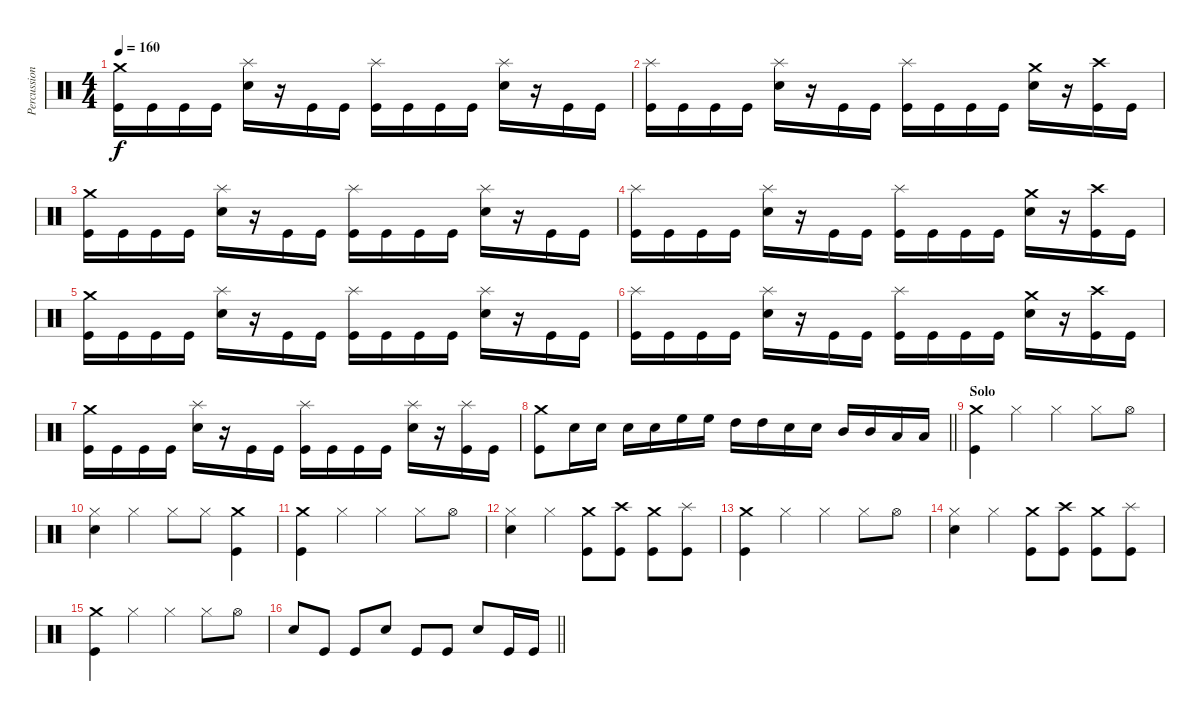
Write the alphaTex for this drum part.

\track ("Percussion" "Percussion") {instrument percussion}
\staff {score}
\articulation defaults
\ts (4 4)
\tempo 160
\clef neutral
\ks c
("Crash medium (hit)" "Kick (hit)").16{dy f} "Kick (hit)".16 "Kick (hit)".16 "Kick (hit)".16 ("Splash (hit)" "Snare (hit) 2").16 r.16 "Kick (hit)".16 "Kick (hit)".16 ("Splash (hit)" "Kick (hit)").16 "Kick (hit)".16 "Kick (hit)".16 "Kick (hit)".16 ("Splash (hit)" "Snare (hit) 2").16 r.16 "Kick (hit)".16 "Kick (hit)".16 |
("Splash (hit)" "Kick (hit)").16 "Kick (hit)".16 "Kick (hit)".16 "Kick (hit)".16 ("Splash (hit)" "Snare (hit) 2").16 r.16 "Kick (hit)".16 "Kick (hit)".16 ("Splash (hit)" "Kick (hit)").16 "Kick (hit)".16 "Kick (hit)".16 "Kick (hit)".16 ("Crash medium (hit)" "Snare (hit) 2").16 r.16 ("Crash high (hit)" "Kick (hit)").16 "Kick (hit)".16 |
("Crash medium (hit)" "Kick (hit)").16 "Kick (hit)".16 "Kick (hit)".16 "Kick (hit)".16 ("Splash (hit)" "Snare (hit) 2").16 r.16 "Kick (hit)".16 "Kick (hit)".16 ("Splash (hit)" "Kick (hit)").16 "Kick (hit)".16 "Kick (hit)".16 "Kick (hit)".16 ("Splash (hit)" "Snare (hit) 2").16 r.16 "Kick (hit)".16 "Kick (hit)".16 |
("Splash (hit)" "Kick (hit)").16 "Kick (hit)".16 "Kick (hit)".16 "Kick (hit)".16 ("Splash (hit)" "Snare (hit) 2").16 r.16 "Kick (hit)".16 "Kick (hit)".16 ("Splash (hit)" "Kick (hit)").16 "Kick (hit)".16 "Kick (hit)".16 "Kick (hit)".16 ("Crash medium (hit)" "Snare (hit) 2").16 r.16 ("Crash high (hit)" "Kick (hit)").16 "Kick (hit)".16 |
("Crash medium (hit)" "Kick (hit)").16 "Kick (hit)".16 "Kick (hit)".16 "Kick (hit)".16 ("Splash (hit)" "Snare (hit) 2").16 r.16 "Kick (hit)".16 "Kick (hit)".16 ("Splash (hit)" "Kick (hit)").16 "Kick (hit)".16 "Kick (hit)".16 "Kick (hit)".16 ("Splash (hit)" "Snare (hit) 2").16 r.16 "Kick (hit)".16 "Kick (hit)".16 |
("Splash (hit)" "Kick (hit)").16 "Kick (hit)".16 "Kick (hit)".16 "Kick (hit)".16 ("Splash (hit)" "Snare (hit) 2").16 r.16 "Kick (hit)".16 "Kick (hit)".16 ("Splash (hit)" "Kick (hit)").16 "Kick (hit)".16 "Kick (hit)".16 "Kick (hit)".16 ("Crash medium (hit)" "Snare (hit) 2").16 r.16 ("Crash high (hit)" "Kick (hit)").16 "Kick (hit)".16 |
("Crash medium (hit)" "Kick (hit)").16 "Kick (hit)".16 "Kick (hit)".16 "Kick (hit)".16 ("Splash (hit)" "Snare (hit) 2").16 r.16 "Kick (hit)".16 "Kick (hit)".16 ("Splash (hit)" "Kick (hit)").16 "Kick (hit)".16 "Kick (hit)".16 "Kick (hit)".16 ("Splash (hit)" "Snare (hit) 2").16 r.16 ("Splash (hit)" "Kick (hit)").16 "Kick (hit)".16 |
\barLineRight lightlight
("Crash medium (hit)" "Kick (hit)").8 "Snare (hit) 2".16 "Snare (hit) 2".16 "Snare (hit) 2".16 "Snare (hit) 2".16 "High Floor Tom (hit)".16 "High Floor Tom (hit)".16 "High Tom (hit)".16 "High Tom (hit)".16 "Snare (hit) 2".16 "Snare (hit) 2".16 "Mid Tom (hit)".16 "Mid Tom (hit)".16 "Low Tom (hit)".16 "Low Tom (hit)".16 |
\section ("" "Solo")
("Crash medium (hit)" "Kick (hit)").4 "Hi-Hat (closed)".4 "Hi-Hat (closed)".4 "Hi-Hat (closed)".8 "Hi-Hat (open)".8 |
("Hi-Hat (closed)" "Snare (hit) 2").4 "Hi-Hat (closed)".4 "Hi-Hat (closed)".8 "Hi-Hat (closed)".8 ("Crash medium (hit)" "Kick (hit)").4 |
("Crash medium (hit)" "Kick (hit)").4 "Hi-Hat (closed)".4 "Hi-Hat (closed)".4 "Hi-Hat (closed)".8 "Hi-Hat (open)".8 |
("Hi-Hat (closed)" "Snare (hit) 2").4 "Hi-Hat (closed)".4 ("Crash medium (hit)" "Kick (hit)").8 ("Crash high (hit)" "Kick (hit)").8 ("Crash medium (hit)" "Kick (hit)").8 ("Splash (hit)" "Kick (hit)").8 |
("Crash medium (hit)" "Kick (hit)").4 "Hi-Hat (closed)".4 "Hi-Hat (closed)".4 "Hi-Hat (closed)".8 "Hi-Hat (open)".8 |
("Hi-Hat (closed)" "Snare (hit) 2").4 "Hi-Hat (closed)".4 ("Crash medium (hit)" "Kick (hit)").8 ("Crash high (hit)" "Kick (hit)").8 ("Crash medium (hit)" "Kick (hit)").8 ("Splash (hit)" "Kick (hit)").8 |
("Crash medium (hit)" "Kick (hit)").4 "Hi-Hat (closed)".4 "Hi-Hat (closed)".4 "Hi-Hat (closed)".8 "Hi-Hat (open)".8 |
\barLineRight lightlight "Snare (hit) 2".8 "Kick (hit)".8 "Kick (hit)".8 "Snare (hit) 2".8 "Kick (hit)".8 "Kick (hit)".8 "Snare (hit) 2".8 "Kick (hit)".16 "Kick (hit)".16
